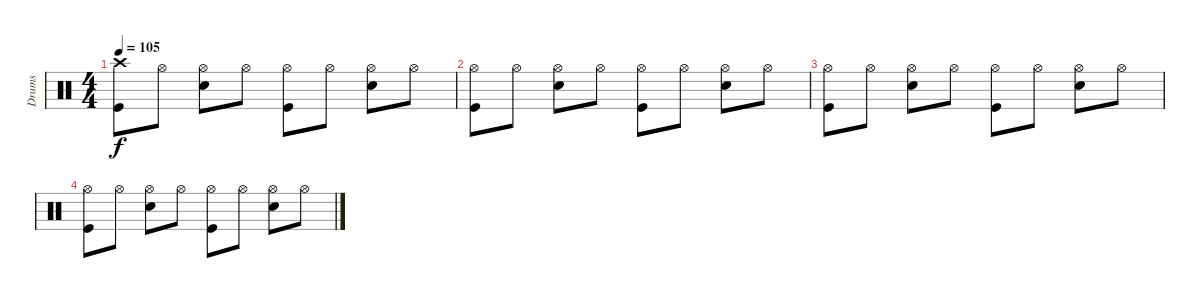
\track ("Drums" "Drums") {instrument percussion}
\staff {score}
\articulation defaults
\ts (4 4)
\tempo 105
\clef neutral
\ks c
("Crash high (hit)" "Kick (hit)").8{dy f} "Hi-Hat (open)".8 ("Hi-Hat (open)" "Snare (hit) 2").8 "Hi-Hat (open)".8 ("Hi-Hat (open)" "Kick (hit)").8 "Hi-Hat (open)".8 ("Hi-Hat (open)" "Snare (hit) 2").8 "Hi-Hat (open)".8 |
("Hi-Hat (open)" "Kick (hit)").8 "Hi-Hat (open)".8 ("Hi-Hat (open)" "Snare (hit) 2").8 "Hi-Hat (open)".8 ("Hi-Hat (open)" "Kick (hit)").8 "Hi-Hat (open)".8 ("Hi-Hat (open)" "Snare (hit) 2").8 "Hi-Hat (open)".8 |
("Hi-Hat (open)" "Kick (hit)").8 "Hi-Hat (open)".8 ("Hi-Hat (open)" "Snare (hit) 2").8 "Hi-Hat (open)".8 ("Hi-Hat (open)" "Kick (hit)").8 "Hi-Hat (open)".8 ("Hi-Hat (open)" "Snare (hit) 2").8 "Hi-Hat (open)".8 |
("Hi-Hat (open)" "Kick (hit)").8 "Hi-Hat (open)".8 ("Hi-Hat (open)" "Snare (hit) 2").8 "Hi-Hat (open)".8 ("Hi-Hat (open)" "Kick (hit)").8 "Hi-Hat (open)".8 ("Hi-Hat (open)" "Snare (hit) 2").8 "Hi-Hat (open)".8
